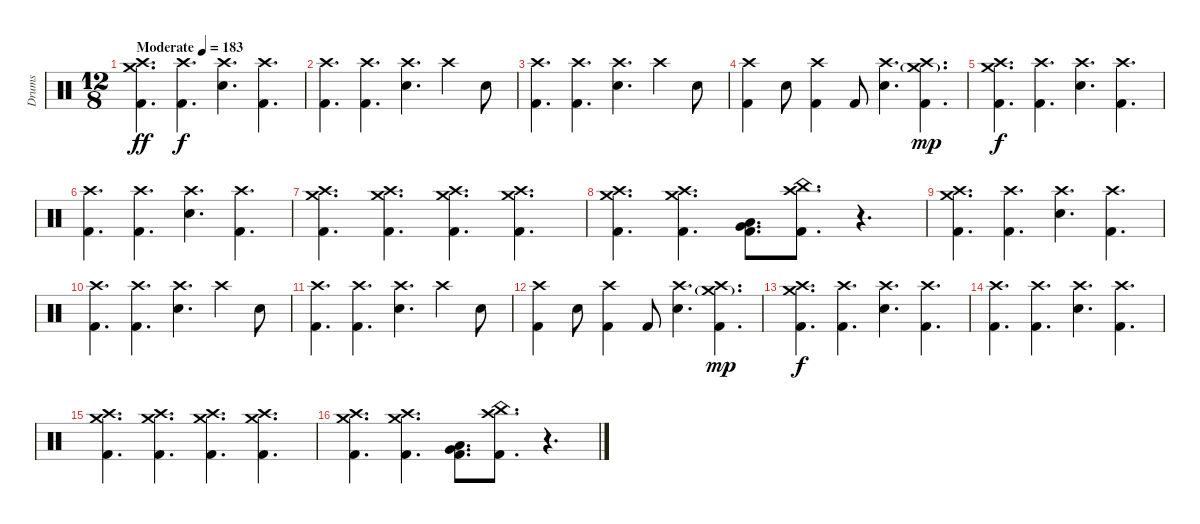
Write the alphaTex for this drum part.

\track ("Drums" "Drums") {instrument percussion}
\staff {score}
\articulation defaults
\ts (12 8)
\tempo (183 "Moderate")
\clef neutral
\ks c
("Kick (hit) 2" "Crash high (hit)" "Crash medium (hit)").4{d dy ff} ("Kick (hit) 2" "Crash high (hit)").4{d dy f} ("Electric Snare (hit)" "Crash high (hit)").4{d} ("Kick (hit) 2" "Crash high (hit)").4{d} |
("Kick (hit) 2" "Crash high (hit)").4{d} ("Kick (hit) 2" "Crash high (hit)").4{d} ("Electric Snare (hit)" "Crash high (hit)").4{d} "Crash high (hit)".4 "Electric Snare (hit)".8 |
("Kick (hit) 2" "Crash high (hit)").4{d} ("Kick (hit) 2" "Crash high (hit)").4{d} ("Electric Snare (hit)" "Crash high (hit)").4{d} "Crash high (hit)".4 "Electric Snare (hit)".8 |
("Kick (hit) 2" "Crash high (hit)").4 "Electric Snare (hit)".8 ("Kick (hit) 2" "Crash high (hit)").4 "Kick (hit) 2".8 ("Electric Snare (hit)" "Crash high (hit)").4{d} ("Kick (hit) 2" "Crash high (hit)" "Crash medium (hit)"{g}).4{d dy mp} |
("Kick (hit) 2" "Crash high (hit)" "Crash medium (hit)").4{d dy f} ("Kick (hit) 2" "Crash high (hit)").4{d} ("Electric Snare (hit)" "Crash high (hit)").4{d} ("Kick (hit) 2" "Crash high (hit)").4{d} |
("Kick (hit) 2" "Crash high (hit)").4{d} ("Kick (hit) 2" "Crash high (hit)").4{d} ("Electric Snare (hit)" "Crash high (hit)").4{d} ("Kick (hit) 2" "Crash high (hit)").4{d} |
("Kick (hit) 2" "Crash high (hit)" "Crash medium (hit)").4{d} ("Kick (hit) 2" "Crash high (hit)" "Crash medium (hit)").4{d} ("Kick (hit) 2" "Crash high (hit)" "Crash medium (hit)").4{d} ("Kick (hit) 2" "Crash high (hit)" "Crash medium (hit)").4{d} |
("Kick (hit) 2" "Crash high (hit)" "Crash medium (hit)").4{d} ("Kick (hit) 2" "Crash high (hit)" "Crash medium (hit)").4{d} ("Kick (hit) 2" "Very Low Tom (hit)" "Low Tom (hit)").8{d} ("Kick (hit) 2" "Crash high (hit)" "China (hit)").8{d} r.4{d} |
("Kick (hit) 2" "Crash high (hit)" "Crash medium (hit)").4{d} ("Kick (hit) 2" "Crash high (hit)").4{d} ("Electric Snare (hit)" "Crash high (hit)").4{d} ("Kick (hit) 2" "Crash high (hit)").4{d} |
("Kick (hit) 2" "Crash high (hit)").4{d} ("Kick (hit) 2" "Crash high (hit)").4{d} ("Electric Snare (hit)" "Crash high (hit)").4{d} "Crash high (hit)".4 "Electric Snare (hit)".8 |
("Kick (hit) 2" "Crash high (hit)").4{d} ("Kick (hit) 2" "Crash high (hit)").4{d} ("Electric Snare (hit)" "Crash high (hit)").4{d} "Crash high (hit)".4 "Electric Snare (hit)".8 |
("Kick (hit) 2" "Crash high (hit)").4 "Electric Snare (hit)".8 ("Kick (hit) 2" "Crash high (hit)").4 "Kick (hit) 2".8 ("Electric Snare (hit)" "Crash high (hit)").4{d} ("Kick (hit) 2" "Crash high (hit)" "Crash medium (hit)"{g}).4{d dy mp} |
("Kick (hit) 2" "Crash high (hit)" "Crash medium (hit)").4{d dy f} ("Kick (hit) 2" "Crash high (hit)").4{d} ("Electric Snare (hit)" "Crash high (hit)").4{d} ("Kick (hit) 2" "Crash high (hit)").4{d} |
("Kick (hit) 2" "Crash high (hit)").4{d} ("Kick (hit) 2" "Crash high (hit)").4{d} ("Electric Snare (hit)" "Crash high (hit)").4{d} ("Kick (hit) 2" "Crash high (hit)").4{d} |
("Kick (hit) 2" "Crash high (hit)" "Crash medium (hit)").4{d} ("Kick (hit) 2" "Crash high (hit)" "Crash medium (hit)").4{d} ("Kick (hit) 2" "Crash high (hit)" "Crash medium (hit)").4{d} ("Kick (hit) 2" "Crash high (hit)" "Crash medium (hit)").4{d} |
("Kick (hit) 2" "Crash high (hit)" "Crash medium (hit)").4{d} ("Kick (hit) 2" "Crash high (hit)" "Crash medium (hit)").4{d} ("Kick (hit) 2" "Very Low Tom (hit)" "Low Tom (hit)").8{d} ("Kick (hit) 2" "Crash high (hit)" "China (hit)").8{d} r.4{d}
